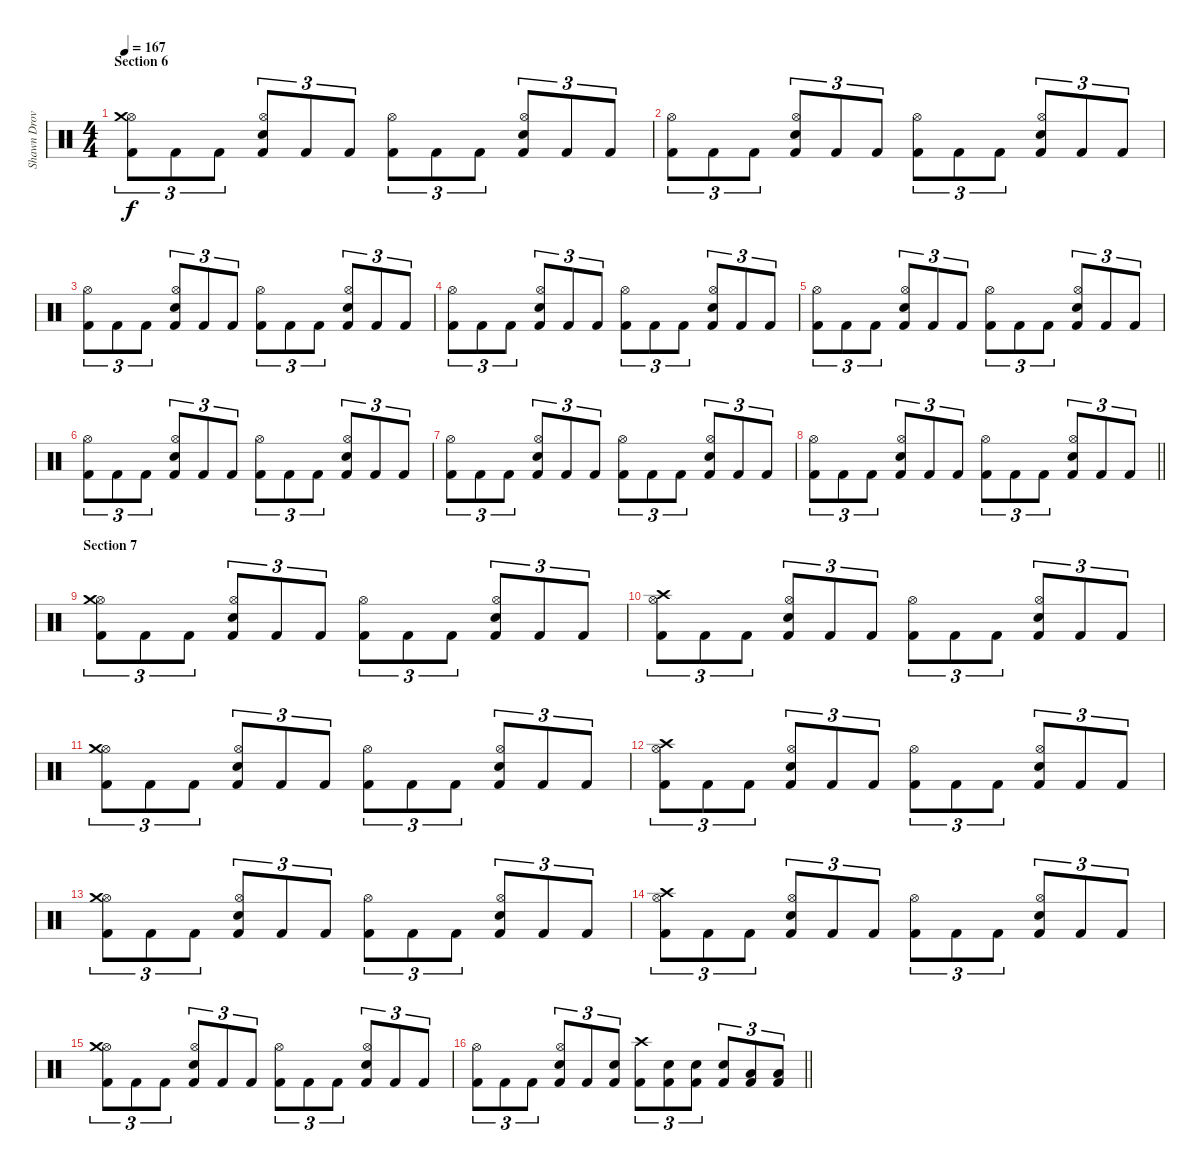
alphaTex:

\track ("Shawn Drover" "Shawn Drov") {instrument percussion}
\staff {score}
\articulation defaults
\ts (4 4)
\section ("" "Section 6")
\tempo 167
\clef neutral
\ks c
("Kick (hit) 2" "Hi-Hat (open)" "Crash medium (hit)").8{tu (3 2) dy f} "Kick (hit) 2".8{tu (3 2)} "Kick (hit) 2".8{tu (3 2)} ("Kick (hit) 2" "Snare (hit) 2" "Hi-Hat (open)").8{tu (3 2)} "Kick (hit) 2".8{tu (3 2)} "Kick (hit) 2".8{tu (3 2)} ("Kick (hit) 2" "Hi-Hat (open)").8{tu (3 2)} "Kick (hit) 2".8{tu (3 2)} "Kick (hit) 2".8{tu (3 2)} ("Kick (hit) 2" "Snare (hit) 2" "Hi-Hat (open)").8{tu (3 2)} "Kick (hit) 2".8{tu (3 2)} "Kick (hit) 2".8{tu (3 2)} |
("Kick (hit) 2" "Hi-Hat (open)").8{tu (3 2)} "Kick (hit) 2".8{tu (3 2)} "Kick (hit) 2".8{tu (3 2)} ("Kick (hit) 2" "Snare (hit) 2" "Hi-Hat (open)").8{tu (3 2)} "Kick (hit) 2".8{tu (3 2)} "Kick (hit) 2".8{tu (3 2)} ("Kick (hit) 2" "Hi-Hat (open)").8{tu (3 2)} "Kick (hit) 2".8{tu (3 2)} "Kick (hit) 2".8{tu (3 2)} ("Kick (hit) 2" "Snare (hit) 2" "Hi-Hat (open)").8{tu (3 2)} "Kick (hit) 2".8{tu (3 2)} "Kick (hit) 2".8{tu (3 2)} |
("Kick (hit) 2" "Hi-Hat (open)").8{tu (3 2)} "Kick (hit) 2".8{tu (3 2)} "Kick (hit) 2".8{tu (3 2)} ("Kick (hit) 2" "Snare (hit) 2" "Hi-Hat (open)").8{tu (3 2)} "Kick (hit) 2".8{tu (3 2)} "Kick (hit) 2".8{tu (3 2)} ("Kick (hit) 2" "Hi-Hat (open)").8{tu (3 2)} "Kick (hit) 2".8{tu (3 2)} "Kick (hit) 2".8{tu (3 2)} ("Kick (hit) 2" "Snare (hit) 2" "Hi-Hat (open)").8{tu (3 2)} "Kick (hit) 2".8{tu (3 2)} "Kick (hit) 2".8{tu (3 2)} |
("Kick (hit) 2" "Hi-Hat (open)").8{tu (3 2)} "Kick (hit) 2".8{tu (3 2)} "Kick (hit) 2".8{tu (3 2)} ("Kick (hit) 2" "Snare (hit) 2" "Hi-Hat (open)").8{tu (3 2)} "Kick (hit) 2".8{tu (3 2)} "Kick (hit) 2".8{tu (3 2)} ("Kick (hit) 2" "Hi-Hat (open)").8{tu (3 2)} "Kick (hit) 2".8{tu (3 2)} "Kick (hit) 2".8{tu (3 2)} ("Kick (hit) 2" "Snare (hit) 2" "Hi-Hat (open)").8{tu (3 2)} "Kick (hit) 2".8{tu (3 2)} "Kick (hit) 2".8{tu (3 2)} |
("Kick (hit) 2" "Hi-Hat (open)").8{tu (3 2)} "Kick (hit) 2".8{tu (3 2)} "Kick (hit) 2".8{tu (3 2)} ("Kick (hit) 2" "Snare (hit) 2" "Hi-Hat (open)").8{tu (3 2)} "Kick (hit) 2".8{tu (3 2)} "Kick (hit) 2".8{tu (3 2)} ("Kick (hit) 2" "Hi-Hat (open)").8{tu (3 2)} "Kick (hit) 2".8{tu (3 2)} "Kick (hit) 2".8{tu (3 2)} ("Kick (hit) 2" "Snare (hit) 2" "Hi-Hat (open)").8{tu (3 2)} "Kick (hit) 2".8{tu (3 2)} "Kick (hit) 2".8{tu (3 2)} |
("Kick (hit) 2" "Hi-Hat (open)").8{tu (3 2)} "Kick (hit) 2".8{tu (3 2)} "Kick (hit) 2".8{tu (3 2)} ("Kick (hit) 2" "Snare (hit) 2" "Hi-Hat (open)").8{tu (3 2)} "Kick (hit) 2".8{tu (3 2)} "Kick (hit) 2".8{tu (3 2)} ("Kick (hit) 2" "Hi-Hat (open)").8{tu (3 2)} "Kick (hit) 2".8{tu (3 2)} "Kick (hit) 2".8{tu (3 2)} ("Kick (hit) 2" "Snare (hit) 2" "Hi-Hat (open)").8{tu (3 2)} "Kick (hit) 2".8{tu (3 2)} "Kick (hit) 2".8{tu (3 2)} |
("Kick (hit) 2" "Hi-Hat (open)").8{tu (3 2)} "Kick (hit) 2".8{tu (3 2)} "Kick (hit) 2".8{tu (3 2)} ("Kick (hit) 2" "Snare (hit) 2" "Hi-Hat (open)").8{tu (3 2)} "Kick (hit) 2".8{tu (3 2)} "Kick (hit) 2".8{tu (3 2)} ("Kick (hit) 2" "Hi-Hat (open)").8{tu (3 2)} "Kick (hit) 2".8{tu (3 2)} "Kick (hit) 2".8{tu (3 2)} ("Kick (hit) 2" "Snare (hit) 2" "Hi-Hat (open)").8{tu (3 2)} "Kick (hit) 2".8{tu (3 2)} "Kick (hit) 2".8{tu (3 2)} |
\barLineRight lightlight
("Kick (hit) 2" "Hi-Hat (open)").8{tu (3 2)} "Kick (hit) 2".8{tu (3 2)} "Kick (hit) 2".8{tu (3 2)} ("Kick (hit) 2" "Snare (hit) 2" "Hi-Hat (open)").8{tu (3 2)} "Kick (hit) 2".8{tu (3 2)} "Kick (hit) 2".8{tu (3 2)} ("Kick (hit) 2" "Hi-Hat (open)").8{tu (3 2)} "Kick (hit) 2".8{tu (3 2)} "Kick (hit) 2".8{tu (3 2)} ("Kick (hit) 2" "Snare (hit) 2" "Hi-Hat (open)").8{tu (3 2)} "Kick (hit) 2".8{tu (3 2)} "Kick (hit) 2".8{tu (3 2)} |
\section ("" "Section 7")
("Kick (hit) 2" "Hi-Hat (open)" "Crash medium (hit)").8{tu (3 2)} "Kick (hit) 2".8{tu (3 2)} "Kick (hit) 2".8{tu (3 2)} ("Kick (hit) 2" "Snare (hit) 2" "Hi-Hat (open)").8{tu (3 2)} "Kick (hit) 2".8{tu (3 2)} "Kick (hit) 2".8{tu (3 2)} ("Kick (hit) 2" "Hi-Hat (open)").8{tu (3 2)} "Kick (hit) 2".8{tu (3 2)} "Kick (hit) 2".8{tu (3 2)} ("Kick (hit) 2" "Snare (hit) 2" "Hi-Hat (open)").8{tu (3 2)} "Kick (hit) 2".8{tu (3 2)} "Kick (hit) 2".8{tu (3 2)} |
("Kick (hit) 2" "Hi-Hat (open)" "Crash high (hit)").8{tu (3 2)} "Kick (hit) 2".8{tu (3 2)} "Kick (hit) 2".8{tu (3 2)} ("Kick (hit) 2" "Snare (hit) 2" "Hi-Hat (open)").8{tu (3 2)} "Kick (hit) 2".8{tu (3 2)} "Kick (hit) 2".8{tu (3 2)} ("Kick (hit) 2" "Hi-Hat (open)").8{tu (3 2)} "Kick (hit) 2".8{tu (3 2)} "Kick (hit) 2".8{tu (3 2)} ("Kick (hit) 2" "Snare (hit) 2" "Hi-Hat (open)").8{tu (3 2)} "Kick (hit) 2".8{tu (3 2)} "Kick (hit) 2".8{tu (3 2)} |
("Kick (hit) 2" "Hi-Hat (open)" "Crash medium (hit)").8{tu (3 2)} "Kick (hit) 2".8{tu (3 2)} "Kick (hit) 2".8{tu (3 2)} ("Kick (hit) 2" "Snare (hit) 2" "Hi-Hat (open)").8{tu (3 2)} "Kick (hit) 2".8{tu (3 2)} "Kick (hit) 2".8{tu (3 2)} ("Kick (hit) 2" "Hi-Hat (open)").8{tu (3 2)} "Kick (hit) 2".8{tu (3 2)} "Kick (hit) 2".8{tu (3 2)} ("Kick (hit) 2" "Snare (hit) 2" "Hi-Hat (open)").8{tu (3 2)} "Kick (hit) 2".8{tu (3 2)} "Kick (hit) 2".8{tu (3 2)} |
("Kick (hit) 2" "Hi-Hat (open)" "Crash high (hit)").8{tu (3 2)} "Kick (hit) 2".8{tu (3 2)} "Kick (hit) 2".8{tu (3 2)} ("Kick (hit) 2" "Snare (hit) 2" "Hi-Hat (open)").8{tu (3 2)} "Kick (hit) 2".8{tu (3 2)} "Kick (hit) 2".8{tu (3 2)} ("Kick (hit) 2" "Hi-Hat (open)").8{tu (3 2)} "Kick (hit) 2".8{tu (3 2)} "Kick (hit) 2".8{tu (3 2)} ("Kick (hit) 2" "Snare (hit) 2" "Hi-Hat (open)").8{tu (3 2)} "Kick (hit) 2".8{tu (3 2)} "Kick (hit) 2".8{tu (3 2)} |
("Kick (hit) 2" "Hi-Hat (open)" "Crash medium (hit)").8{tu (3 2)} "Kick (hit) 2".8{tu (3 2)} "Kick (hit) 2".8{tu (3 2)} ("Kick (hit) 2" "Snare (hit) 2" "Hi-Hat (open)").8{tu (3 2)} "Kick (hit) 2".8{tu (3 2)} "Kick (hit) 2".8{tu (3 2)} ("Kick (hit) 2" "Hi-Hat (open)").8{tu (3 2)} "Kick (hit) 2".8{tu (3 2)} "Kick (hit) 2".8{tu (3 2)} ("Kick (hit) 2" "Snare (hit) 2" "Hi-Hat (open)").8{tu (3 2)} "Kick (hit) 2".8{tu (3 2)} "Kick (hit) 2".8{tu (3 2)} |
("Kick (hit) 2" "Hi-Hat (open)" "Crash high (hit)").8{tu (3 2)} "Kick (hit) 2".8{tu (3 2)} "Kick (hit) 2".8{tu (3 2)} ("Kick (hit) 2" "Snare (hit) 2" "Hi-Hat (open)").8{tu (3 2)} "Kick (hit) 2".8{tu (3 2)} "Kick (hit) 2".8{tu (3 2)} ("Kick (hit) 2" "Hi-Hat (open)").8{tu (3 2)} "Kick (hit) 2".8{tu (3 2)} "Kick (hit) 2".8{tu (3 2)} ("Kick (hit) 2" "Snare (hit) 2" "Hi-Hat (open)").8{tu (3 2)} "Kick (hit) 2".8{tu (3 2)} "Kick (hit) 2".8{tu (3 2)} |
("Kick (hit) 2" "Hi-Hat (open)" "Crash medium (hit)").8{tu (3 2)} "Kick (hit) 2".8{tu (3 2)} "Kick (hit) 2".8{tu (3 2)} ("Kick (hit) 2" "Snare (hit) 2" "Hi-Hat (open)").8{tu (3 2)} "Kick (hit) 2".8{tu (3 2)} "Kick (hit) 2".8{tu (3 2)} ("Kick (hit) 2" "Hi-Hat (open)").8{tu (3 2)} "Kick (hit) 2".8{tu (3 2)} "Kick (hit) 2".8{tu (3 2)} ("Kick (hit) 2" "Snare (hit) 2" "Hi-Hat (open)").8{tu (3 2)} "Kick (hit) 2".8{tu (3 2)} "Kick (hit) 2".8{tu (3 2)} |
\barLineRight lightlight
("Kick (hit) 2" "Hi-Hat (open)").8{tu (3 2)} "Kick (hit) 2".8{tu (3 2)} "Kick (hit) 2".8{tu (3 2)} ("Kick (hit) 2" "Snare (hit) 2" "Hi-Hat (open)").8{tu (3 2)} "Kick (hit) 2".8{tu (3 2)} ("Kick (hit) 2" "Snare (hit) 2").8{tu (3 2)} ("Kick (hit) 2" "Crash high (hit)").8{tu (3 2)} ("Kick (hit) 2" "Snare (hit) 2").8{tu (3 2)} ("Kick (hit) 2" "Snare (hit) 2").8{tu (3 2)} ("Kick (hit) 2" "Snare (hit) 2").8{tu (3 2)} ("Kick (hit) 2" "Low Tom (hit)").8{tu (3 2)} ("Kick (hit) 2" "Low Tom (hit)").8{tu (3 2)}
